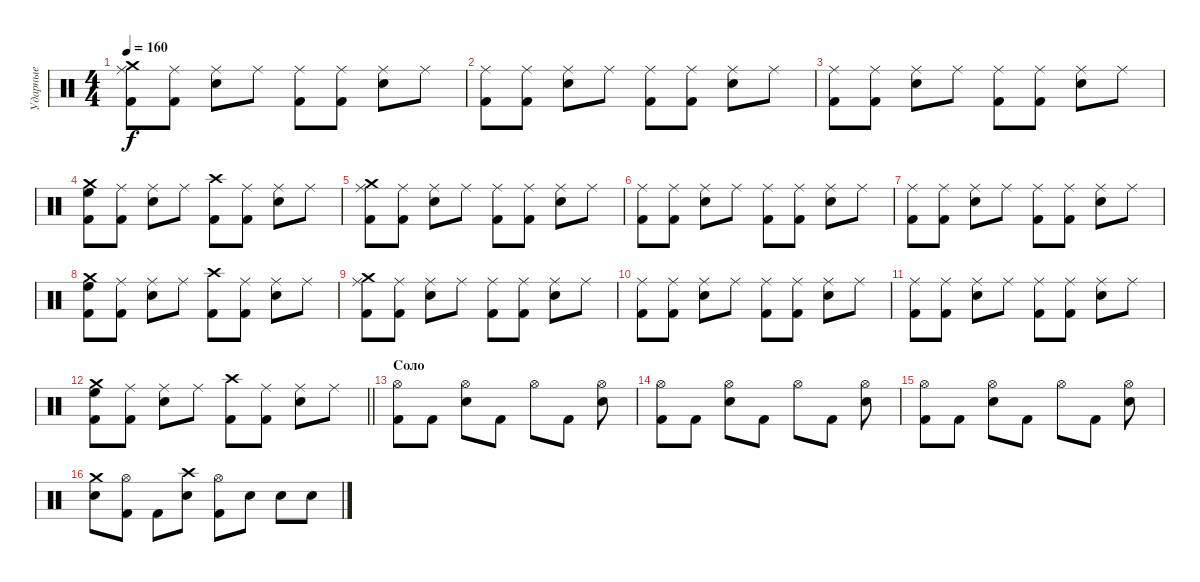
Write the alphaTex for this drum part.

\track ("Ударные" "Ударные") {instrument percussion}
\staff {score}
\articulation defaults
\ts (4 4)
\tempo 160
\clef neutral
\ks c
("Crash medium (hit)" "Ride (middle)" "Kick (hit) 2").8{dy f} ("Ride (middle)" "Kick (hit) 2").8 ("Ride (middle)" "Snare (hit) 2").8 "Ride (middle)".8 ("Ride (middle)" "Kick (hit) 2").8 ("Ride (middle)" "Kick (hit) 2").8 ("Ride (middle)" "Snare (hit) 2").8 "Ride (middle)".8 |
("Ride (middle)" "Kick (hit) 2").8 ("Ride (middle)" "Kick (hit) 2").8 ("Ride (middle)" "Snare (hit) 2").8 "Ride (middle)".8 ("Ride (middle)" "Kick (hit) 2").8 ("Ride (middle)" "Kick (hit) 2").8 ("Ride (middle)" "Snare (hit) 2").8 "Ride (middle)".8 |
("Ride (middle)" "Kick (hit) 2").8 ("Ride (middle)" "Kick (hit) 2").8 ("Ride (middle)" "Snare (hit) 2").8 "Ride (middle)".8 ("Ride (middle)" "Kick (hit) 2").8 ("Ride (middle)" "Kick (hit) 2").8 ("Ride (middle)" "Snare (hit) 2").8 "Ride (middle)".8 |
("Crash medium (hit)" "High Floor Tom (hit)" "Kick (hit) 2").8 ("Ride (middle)" "Kick (hit) 2").8 ("Ride (middle)" "Snare (hit) 2").8 "Ride (middle)".8 ("Crash high (hit)" "Kick (hit) 2").8 ("Ride (middle)" "Kick (hit) 2").8 ("Ride (middle)" "Snare (hit) 2").8 "Ride (middle)".8 |
("Crash medium (hit)" "Ride (middle)" "Kick (hit) 2").8 ("Ride (middle)" "Kick (hit) 2").8 ("Ride (middle)" "Snare (hit) 2").8 "Ride (middle)".8 ("Ride (middle)" "Kick (hit) 2").8 ("Ride (middle)" "Kick (hit) 2").8 ("Ride (middle)" "Snare (hit) 2").8 "Ride (middle)".8 |
("Ride (middle)" "Kick (hit) 2").8 ("Ride (middle)" "Kick (hit) 2").8 ("Ride (middle)" "Snare (hit) 2").8 "Ride (middle)".8 ("Ride (middle)" "Kick (hit) 2").8 ("Ride (middle)" "Kick (hit) 2").8 ("Ride (middle)" "Snare (hit) 2").8 "Ride (middle)".8 |
("Ride (middle)" "Kick (hit) 2").8 ("Ride (middle)" "Kick (hit) 2").8 ("Ride (middle)" "Snare (hit) 2").8 "Ride (middle)".8 ("Ride (middle)" "Kick (hit) 2").8 ("Ride (middle)" "Kick (hit) 2").8 ("Ride (middle)" "Snare (hit) 2").8 "Ride (middle)".8 |
("Crash medium (hit)" "High Floor Tom (hit)" "Kick (hit) 2").8 ("Ride (middle)" "Kick (hit) 2").8 ("Ride (middle)" "Snare (hit) 2").8 "Ride (middle)".8 ("Crash high (hit)" "Kick (hit) 2").8 ("Ride (middle)" "Kick (hit) 2").8 ("Ride (middle)" "Snare (hit) 2").8 "Ride (middle)".8 |
("Crash medium (hit)" "Ride (middle)" "Kick (hit) 2").8 ("Ride (middle)" "Kick (hit) 2").8 ("Ride (middle)" "Snare (hit) 2").8 "Ride (middle)".8 ("Ride (middle)" "Kick (hit) 2").8 ("Ride (middle)" "Kick (hit) 2").8 ("Ride (middle)" "Snare (hit) 2").8 "Ride (middle)".8 |
("Ride (middle)" "Kick (hit) 2").8 ("Ride (middle)" "Kick (hit) 2").8 ("Ride (middle)" "Snare (hit) 2").8 "Ride (middle)".8 ("Ride (middle)" "Kick (hit) 2").8 ("Ride (middle)" "Kick (hit) 2").8 ("Ride (middle)" "Snare (hit) 2").8 "Ride (middle)".8 |
("Ride (middle)" "Kick (hit) 2").8 ("Ride (middle)" "Kick (hit) 2").8 ("Ride (middle)" "Snare (hit) 2").8 "Ride (middle)".8 ("Ride (middle)" "Kick (hit) 2").8 ("Ride (middle)" "Kick (hit) 2").8 ("Ride (middle)" "Snare (hit) 2").8 "Ride (middle)".8 |
\barLineRight lightlight
("Crash medium (hit)" "High Floor Tom (hit)" "Kick (hit) 2").8 ("Ride (middle)" "Kick (hit) 2").8 ("Ride (middle)" "Snare (hit) 2").8 "Ride (middle)".8 ("Crash high (hit)" "Kick (hit) 2").8 ("Ride (middle)" "Kick (hit) 2").8 ("Ride (middle)" "Snare (hit) 2").8 "Ride (middle)".8 |
\section ("" "Соло")
("Kick (hit) 2" "Hi-Hat (open)").8 "Kick (hit) 2".8 ("Snare (hit) 2" "Hi-Hat (open)").8 "Kick (hit) 2".8 "Hi-Hat (open)".8 "Kick (hit) 2".8 ("Snare (hit) 2" "Hi-Hat (open)").8 |
("Kick (hit) 2" "Hi-Hat (open)").8 "Kick (hit) 2".8 ("Snare (hit) 2" "Hi-Hat (open)").8 "Kick (hit) 2".8 "Hi-Hat (open)".8 "Kick (hit) 2".8 ("Snare (hit) 2" "Hi-Hat (open)").8 |
("Kick (hit) 2" "Hi-Hat (open)").8 "Kick (hit) 2".8 ("Snare (hit) 2" "Hi-Hat (open)").8 "Kick (hit) 2".8 "Hi-Hat (open)".8 "Kick (hit) 2".8 ("Snare (hit) 2" "Hi-Hat (open)").8 |
("Snare (hit) 2" "Crash medium (hit)").8 ("Kick (hit) 2" "Hi-Hat (open)").8 "Kick (hit) 2".8 ("Snare (hit) 2" "Crash high (hit)").8 ("Kick (hit) 2" "Hi-Hat (open)").8 "Snare (hit) 2".8 "Snare (hit) 2".8 "Snare (hit) 2".8
